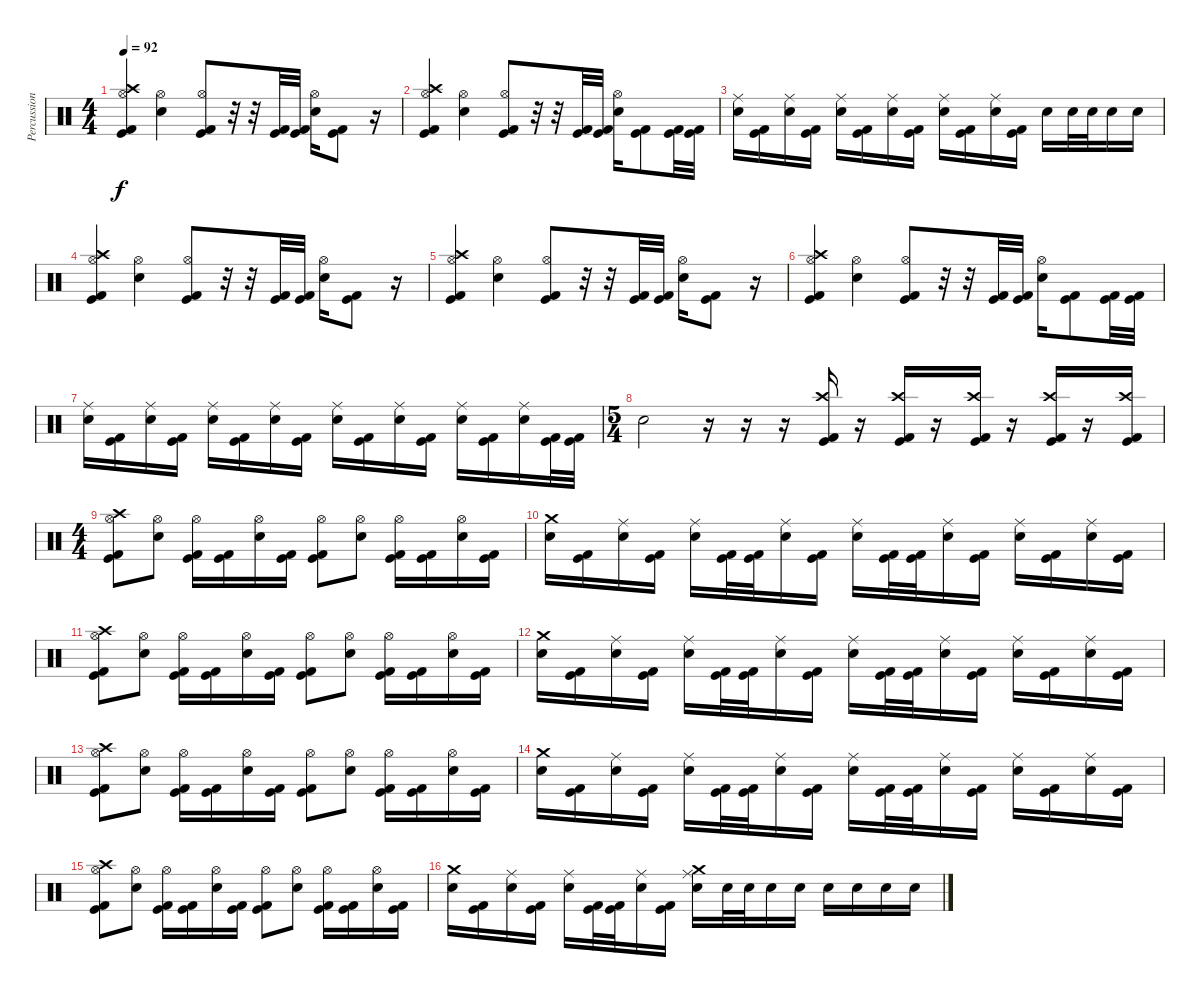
\track ("Percussion" "Percussion") {instrument percussion}
\staff {score}
\articulation defaults
\ts (4 4)
\tempo 92
\clef neutral
\ks c
("Kick (hit) 2" "Hi-Hat (open)" "Crash high (hit)" "Kick (hit)").4{dy f} ("Electric Snare (hit)" "Hi-Hat (open)").4 ("Kick (hit) 2" "Hi-Hat (open)" "Kick (hit)").8 r.32 r.32 ("Kick (hit) 2" "Kick (hit)").32 ("Kick (hit) 2" "Kick (hit)").32 ("Electric Snare (hit)" "Hi-Hat (open)").16 ("Kick (hit) 2" "Kick (hit)").8 r.16 |
("Kick (hit) 2" "Hi-Hat (open)" "Crash high (hit)" "Kick (hit)").4 ("Electric Snare (hit)" "Hi-Hat (open)").4 ("Kick (hit) 2" "Hi-Hat (open)" "Kick (hit)").8 r.32 r.32 ("Kick (hit) 2" "Kick (hit)").32 ("Kick (hit) 2" "Kick (hit)").32 ("Electric Snare (hit)" "Hi-Hat (open)").16 ("Kick (hit) 2" "Kick (hit)").8 ("Kick (hit) 2" "Kick (hit)").32 ("Kick (hit) 2" "Kick (hit)").32 |
("Electric Snare (hit)" "Ride (middle)").16 ("Kick (hit) 2" "Kick (hit)").16 ("Electric Snare (hit)" "Ride (middle)").16 ("Kick (hit) 2" "Kick (hit)").16 ("Electric Snare (hit)" "Ride (middle)").16 ("Kick (hit) 2" "Kick (hit)").16 ("Electric Snare (hit)" "Ride (middle)").16 ("Kick (hit) 2" "Kick (hit)").16 ("Electric Snare (hit)" "Ride (middle)").16 ("Kick (hit) 2" "Kick (hit)").16 ("Electric Snare (hit)" "Ride (middle)").16 ("Kick (hit) 2" "Kick (hit)").16 "Electric Snare (hit)".16 "Electric Snare (hit)".32 "Electric Snare (hit)".32 "Electric Snare (hit)".16 "Electric Snare (hit)".16 |
("Kick (hit) 2" "Hi-Hat (open)" "Crash high (hit)" "Kick (hit)").4 ("Electric Snare (hit)" "Hi-Hat (open)").4 ("Kick (hit) 2" "Hi-Hat (open)" "Kick (hit)").8 r.32 r.32 ("Kick (hit) 2" "Kick (hit)").32 ("Kick (hit) 2" "Kick (hit)").32 ("Electric Snare (hit)" "Hi-Hat (open)").16 ("Kick (hit) 2" "Kick (hit)").8 r.16 |
("Kick (hit) 2" "Hi-Hat (open)" "Crash high (hit)" "Kick (hit)").4 ("Electric Snare (hit)" "Hi-Hat (open)").4 ("Kick (hit) 2" "Hi-Hat (open)" "Kick (hit)").8 r.32 r.32 ("Kick (hit) 2" "Kick (hit)").32 ("Kick (hit) 2" "Kick (hit)").32 ("Electric Snare (hit)" "Hi-Hat (open)").16 ("Kick (hit) 2" "Kick (hit)").8 r.16 |
("Kick (hit) 2" "Hi-Hat (open)" "Crash high (hit)" "Kick (hit)").4 ("Electric Snare (hit)" "Hi-Hat (open)").4 ("Kick (hit) 2" "Hi-Hat (open)" "Kick (hit)").8 r.32 r.32 ("Kick (hit) 2" "Kick (hit)").32 ("Kick (hit) 2" "Kick (hit)").32 ("Electric Snare (hit)" "Hi-Hat (open)").16 ("Kick (hit) 2" "Kick (hit)").8 ("Kick (hit) 2" "Kick (hit)").32 ("Kick (hit) 2" "Kick (hit)").32 |
("Electric Snare (hit)" "Ride (middle)").16 ("Kick (hit) 2" "Kick (hit)").16 ("Electric Snare (hit)" "Ride (middle)").16 ("Kick (hit) 2" "Kick (hit)").16 ("Electric Snare (hit)" "Ride (middle)").16 ("Kick (hit) 2" "Kick (hit)").16 ("Electric Snare (hit)" "Ride (middle)").16 ("Kick (hit) 2" "Kick (hit)").16 ("Electric Snare (hit)" "Ride (middle)").16 ("Kick (hit) 2" "Kick (hit)").16 ("Electric Snare (hit)" "Ride (middle)").16 ("Kick (hit) 2" "Kick (hit)").16 ("Electric Snare (hit)" "Ride (middle)").16 ("Kick (hit) 2" "Kick (hit)").16 ("Electric Snare (hit)" "Ride (middle)").16 ("Kick (hit) 2" "Kick (hit)").32 ("Kick (hit) 2" "Kick (hit)").32 |
\ts (5 4)
"Electric Snare (hit)".2 r.16 r.16 r.16 ("Kick (hit) 2" "Crash high (hit)" "Kick (hit)").16 r.16 ("Kick (hit) 2" "Crash high (hit)" "Kick (hit)").16 r.16 ("Kick (hit) 2" "Crash high (hit)" "Kick (hit)").16 r.16 ("Kick (hit) 2" "Crash high (hit)" "Kick (hit)").16 r.16 ("Kick (hit) 2" "Crash high (hit)" "Kick (hit)").16 |
\ts (4 4)
("Kick (hit) 2" "Hi-Hat (open)" "Kick (hit)" "Crash high (hit)").8 ("Electric Snare (hit)" "Hi-Hat (open)").8 ("Kick (hit) 2" "Hi-Hat (open)" "Kick (hit)").16 ("Kick (hit) 2" "Kick (hit)").16 ("Electric Snare (hit)" "Hi-Hat (open)").16 ("Kick (hit) 2" "Kick (hit)").16 ("Kick (hit) 2" "Hi-Hat (open)" "Kick (hit)").8 ("Electric Snare (hit)" "Hi-Hat (open)").8 ("Kick (hit) 2" "Hi-Hat (open)" "Kick (hit)").16 ("Kick (hit) 2" "Kick (hit)").16 ("Electric Snare (hit)" "Hi-Hat (open)").16 ("Kick (hit) 2" "Kick (hit)").16 |
("Electric Snare (hit)" "Crash medium (hit)").16 ("Kick (hit) 2" "Kick (hit)").16 ("Electric Snare (hit)" "Ride (middle)").16 ("Kick (hit) 2" "Kick (hit)").16 ("Electric Snare (hit)" "Ride (middle)").16 ("Kick (hit) 2" "Kick (hit)").32 ("Kick (hit) 2" "Kick (hit)").32 ("Electric Snare (hit)" "Ride (middle)").16 ("Kick (hit) 2" "Kick (hit)").16 ("Electric Snare (hit)" "Ride (middle)").16 ("Kick (hit) 2" "Kick (hit)").32 ("Kick (hit) 2" "Kick (hit)").32 ("Electric Snare (hit)" "Ride (middle)").16 ("Kick (hit) 2" "Kick (hit)").16 ("Electric Snare (hit)" "Ride (middle)").16 ("Kick (hit) 2" "Kick (hit)").16 ("Electric Snare (hit)" "Ride (middle)").16 ("Kick (hit) 2" "Kick (hit)").16 |
("Kick (hit) 2" "Hi-Hat (open)" "Kick (hit)" "Crash high (hit)").8 ("Electric Snare (hit)" "Hi-Hat (open)").8 ("Kick (hit) 2" "Hi-Hat (open)" "Kick (hit)").16 ("Kick (hit) 2" "Kick (hit)").16 ("Electric Snare (hit)" "Hi-Hat (open)").16 ("Kick (hit) 2" "Kick (hit)").16 ("Kick (hit) 2" "Hi-Hat (open)" "Kick (hit)").8 ("Electric Snare (hit)" "Hi-Hat (open)").8 ("Kick (hit) 2" "Hi-Hat (open)" "Kick (hit)").16 ("Kick (hit) 2" "Kick (hit)").16 ("Electric Snare (hit)" "Hi-Hat (open)").16 ("Kick (hit) 2" "Kick (hit)").16 |
("Electric Snare (hit)" "Crash medium (hit)").16 ("Kick (hit) 2" "Kick (hit)").16 ("Electric Snare (hit)" "Ride (middle)").16 ("Kick (hit) 2" "Kick (hit)").16 ("Electric Snare (hit)" "Ride (middle)").16 ("Kick (hit) 2" "Kick (hit)").32 ("Kick (hit) 2" "Kick (hit)").32 ("Electric Snare (hit)" "Ride (middle)").16 ("Kick (hit) 2" "Kick (hit)").16 ("Electric Snare (hit)" "Ride (middle)").16 ("Kick (hit) 2" "Kick (hit)").32 ("Kick (hit) 2" "Kick (hit)").32 ("Electric Snare (hit)" "Ride (middle)").16 ("Kick (hit) 2" "Kick (hit)").16 ("Electric Snare (hit)" "Ride (middle)").16 ("Kick (hit) 2" "Kick (hit)").16 ("Electric Snare (hit)" "Ride (middle)").16 ("Kick (hit) 2" "Kick (hit)").16 |
("Kick (hit) 2" "Hi-Hat (open)" "Kick (hit)" "Crash high (hit)").8 ("Electric Snare (hit)" "Hi-Hat (open)").8 ("Kick (hit) 2" "Hi-Hat (open)" "Kick (hit)").16 ("Kick (hit) 2" "Kick (hit)").16 ("Electric Snare (hit)" "Hi-Hat (open)").16 ("Kick (hit) 2" "Kick (hit)").16 ("Kick (hit) 2" "Hi-Hat (open)" "Kick (hit)").8 ("Electric Snare (hit)" "Hi-Hat (open)").8 ("Kick (hit) 2" "Hi-Hat (open)" "Kick (hit)").16 ("Kick (hit) 2" "Kick (hit)").16 ("Electric Snare (hit)" "Hi-Hat (open)").16 ("Kick (hit) 2" "Kick (hit)").16 |
("Electric Snare (hit)" "Crash medium (hit)").16 ("Kick (hit) 2" "Kick (hit)").16 ("Electric Snare (hit)" "Ride (middle)").16 ("Kick (hit) 2" "Kick (hit)").16 ("Electric Snare (hit)" "Ride (middle)").16 ("Kick (hit) 2" "Kick (hit)").32 ("Kick (hit) 2" "Kick (hit)").32 ("Electric Snare (hit)" "Ride (middle)").16 ("Kick (hit) 2" "Kick (hit)").16 ("Electric Snare (hit)" "Ride (middle)").16 ("Kick (hit) 2" "Kick (hit)").32 ("Kick (hit) 2" "Kick (hit)").32 ("Electric Snare (hit)" "Ride (middle)").16 ("Kick (hit) 2" "Kick (hit)").16 ("Electric Snare (hit)" "Ride (middle)").16 ("Kick (hit) 2" "Kick (hit)").16 ("Electric Snare (hit)" "Ride (middle)").16 ("Kick (hit) 2" "Kick (hit)").16 |
("Kick (hit) 2" "Hi-Hat (open)" "Kick (hit)" "Crash high (hit)").8 ("Electric Snare (hit)" "Hi-Hat (open)").8 ("Kick (hit) 2" "Hi-Hat (open)" "Kick (hit)").16 ("Kick (hit) 2" "Kick (hit)").16 ("Electric Snare (hit)" "Hi-Hat (open)").16 ("Kick (hit) 2" "Kick (hit)").16 ("Kick (hit) 2" "Hi-Hat (open)" "Kick (hit)").8 ("Electric Snare (hit)" "Hi-Hat (open)").8 ("Kick (hit) 2" "Hi-Hat (open)" "Kick (hit)").16 ("Kick (hit) 2" "Kick (hit)").16 ("Electric Snare (hit)" "Hi-Hat (open)").16 ("Kick (hit) 2" "Kick (hit)").16 |
("Electric Snare (hit)" "Crash medium (hit)").16 ("Kick (hit) 2" "Kick (hit)").16 ("Electric Snare (hit)" "Ride (middle)").16 ("Kick (hit) 2" "Kick (hit)").16 ("Electric Snare (hit)" "Ride (middle)").16 ("Kick (hit) 2" "Kick (hit)").32 ("Kick (hit) 2" "Kick (hit)").32 ("Electric Snare (hit)" "Ride (middle)").16 ("Kick (hit) 2" "Kick (hit)").16 ("Electric Snare (hit)" "Ride (middle)" "Crash medium (hit)").16 "Electric Snare (hit)".32 "Electric Snare (hit)".32 "Electric Snare (hit)".16 "Electric Snare (hit)".16 "Electric Snare (hit)".16 "Electric Snare (hit)".16 "Electric Snare (hit)".16 "Electric Snare (hit)".16
